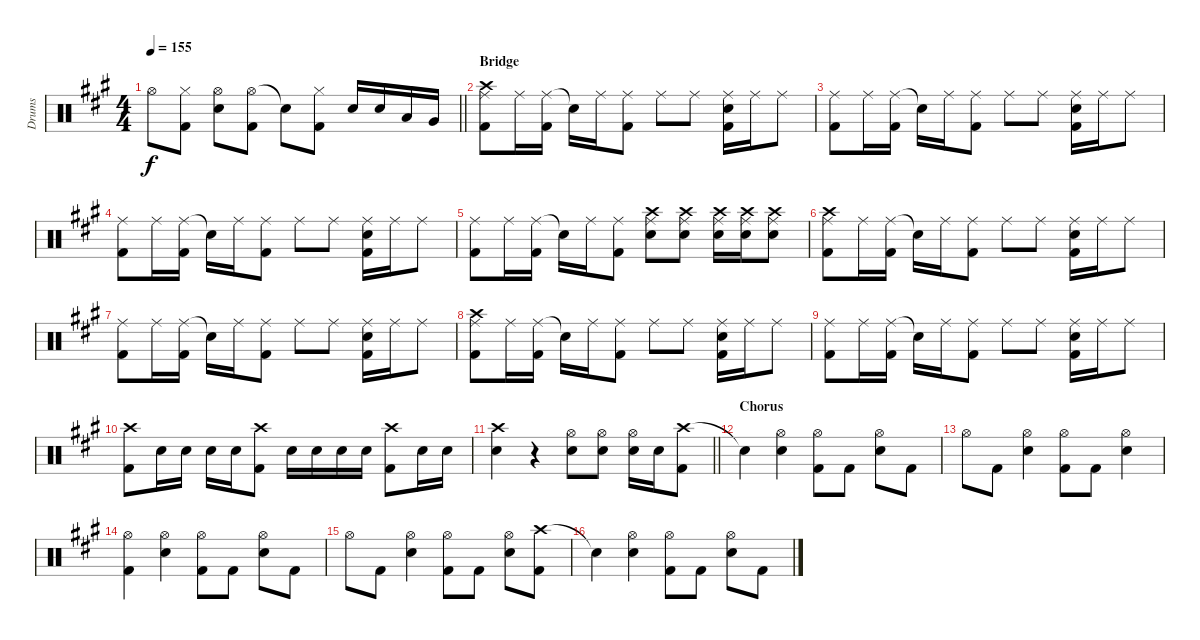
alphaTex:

\track ("Drums" "Drums") {instrument percussion}
\staff {score}
\articulation defaults
\ts (4 4)
\tempo 155
\clef neutral
\barLineRight lightlight
\ks a "Hi-Hat (open)".8{dy f}
("Hi-Hat (closed)" "Kick (hit) 2").8 ("Hi-Hat (open)" "Snare (hit) 2").8 ("Hi-Hat (open)" "Kick (hit) 2").8 "Snare (hit)"{t}.8 ("Hi-Hat (closed)" "Kick (hit) 2").8 "Snare (hit) 2".16 "Snare (hit) 2".16 "Low Tom (hit)".16 "Very Low Tom (hit)".16 |
\section ("" "Bridge")
("Ride (middle)" "Crash high (hit)" "Kick (hit) 2").8 "Ride (middle)".16 ("Ride (middle)" "Kick (hit) 2").16 "Snare (hit)"{t}.16 "Ride (middle)".16 ("Ride (middle)" "Kick (hit) 2").8 "Ride (middle)".8 "Ride (middle)".8 ("Ride (middle)" "Snare (hit) 2" "Kick (hit) 2").16 "Ride (middle)".16 "Ride (middle)".8 |
("Ride (middle)" "Kick (hit) 2").8 "Ride (middle)".16 ("Ride (middle)" "Kick (hit) 2").16 "Snare (hit)"{t}.16 "Ride (middle)".16 ("Ride (middle)" "Kick (hit) 2").8 "Ride (middle)".8 "Ride (middle)".8 ("Ride (middle)" "Snare (hit) 2" "Kick (hit) 2").16 "Ride (middle)".16 "Ride (middle)".8 |
("Ride (middle)" "Kick (hit) 2").8 "Ride (middle)".16 ("Ride (middle)" "Kick (hit) 2").16 "Snare (hit)"{t}.16 "Ride (middle)".16 ("Ride (middle)" "Kick (hit) 2").8 "Ride (middle)".8 "Ride (middle)".8 ("Ride (middle)" "Snare (hit) 2" "Kick (hit) 2").16 "Ride (middle)".16 "Ride (middle)".8 |
("Ride (middle)" "Kick (hit) 2").8 "Ride (middle)".16 ("Ride (middle)" "Kick (hit) 2").16 "Snare (hit)"{t}.16 "Ride (middle)".16 ("Ride (middle)" "Kick (hit) 2").8 ("Ride (middle)" "Snare (hit) 2" "Crash high (hit)").8 ("Ride (middle)" "Snare (hit) 2" "Crash high (hit)").8 ("Ride (middle)" "Snare (hit) 2" "Crash high (hit)").16 ("Ride (middle)" "Snare (hit) 2" "Crash high (hit)").16 ("Ride (middle)" "Snare (hit) 2" "Crash high (hit)").8 |
("Ride (middle)" "Crash high (hit)" "Kick (hit) 2").8 "Ride (middle)".16 ("Ride (middle)" "Kick (hit) 2").16 "Snare (hit)"{t}.16 "Ride (middle)".16 ("Ride (middle)" "Kick (hit) 2").8 "Ride (middle)".8 "Ride (middle)".8 ("Ride (middle)" "Snare (hit) 2" "Kick (hit) 2").16 "Ride (middle)".16 "Ride (middle)".8 |
("Ride (middle)" "Kick (hit) 2").8 "Ride (middle)".16 ("Ride (middle)" "Kick (hit) 2").16 "Snare (hit)"{t}.16 "Ride (middle)".16 ("Ride (middle)" "Kick (hit) 2").8 "Ride (middle)".8 "Ride (middle)".8 ("Ride (middle)" "Snare (hit) 2" "Kick (hit) 2").16 "Ride (middle)".16 "Ride (middle)".8 |
("Ride (middle)" "Crash high (hit)" "Kick (hit) 2").8 "Ride (middle)".16 ("Ride (middle)" "Kick (hit) 2").16 "Snare (hit)"{t}.16 "Ride (middle)".16 ("Ride (middle)" "Kick (hit) 2").8 "Ride (middle)".8 "Ride (middle)".8 ("Ride (middle)" "Snare (hit) 2" "Kick (hit) 2").16 "Ride (middle)".16 "Ride (middle)".8 |
("Ride (middle)" "Kick (hit) 2").8 "Ride (middle)".16 ("Ride (middle)" "Kick (hit) 2").16 "Snare (hit)"{t}.16 "Ride (middle)".16 ("Ride (middle)" "Kick (hit) 2").8 "Ride (middle)".8 "Ride (middle)".8 ("Ride (middle)" "Snare (hit) 2" "Kick (hit) 2").16 "Ride (middle)".16 "Ride (middle)".8 |
("Crash high (hit)" "Kick (hit) 2").8 "Snare (hit) 2".16 "Snare (hit) 2".16 "Snare (hit) 2".16 "Snare (hit) 2".16 ("Crash high (hit)" "Kick (hit) 2").8 "Snare (hit) 2".16 "Snare (hit) 2".16 "Snare (hit) 2".16 "Snare (hit) 2".16 ("Crash high (hit)" "Kick (hit) 2").8 "Snare (hit) 2".16 "Snare (hit) 2".16 |
\barLineRight lightlight
("Crash high (hit)" "Snare (hit) 2").4 r.4 ("Hi-Hat (open)" "Snare (hit) 2").8 ("Hi-Hat (open)" "Snare (hit) 2").8 ("Hi-Hat (open)" "Snare (hit) 2").16 "Snare (hit) 2".16 ("Crash high (hit)" "Kick (hit) 2").8 |
\section ("" "Chorus")
"Snare (hit)"{t}.4 ("Hi-Hat (open)" "Snare (hit) 2").4 ("Hi-Hat (open)" "Kick (hit) 2").8 "Kick (hit) 2".8 ("Hi-Hat (open)" "Snare (hit) 2").8 "Kick (hit) 2".8 |
"Hi-Hat (open)".8 "Kick (hit) 2".8 ("Hi-Hat (open)" "Snare (hit) 2").4 ("Hi-Hat (open)" "Kick (hit) 2").8 "Kick (hit) 2".8 ("Hi-Hat (open)" "Snare (hit) 2").4 |
("Hi-Hat (open)" "Kick (hit) 2").4 ("Hi-Hat (open)" "Snare (hit) 2").4 ("Hi-Hat (open)" "Kick (hit) 2").8 "Kick (hit) 2".8 ("Hi-Hat (open)" "Snare (hit) 2").8 "Kick (hit) 2".8 |
"Hi-Hat (open)".8 "Kick (hit) 2".8 ("Hi-Hat (open)" "Snare (hit) 2").4 ("Hi-Hat (open)" "Kick (hit) 2").8 "Kick (hit) 2".8 ("Hi-Hat (open)" "Snare (hit) 2").8 ("Crash high (hit)" "Kick (hit) 2").8 |
"Snare (hit)"{t}.4 ("Hi-Hat (open)" "Snare (hit) 2").4 ("Hi-Hat (open)" "Kick (hit) 2").8 "Kick (hit) 2".8 ("Hi-Hat (open)" "Snare (hit) 2").8 "Kick (hit) 2".8
